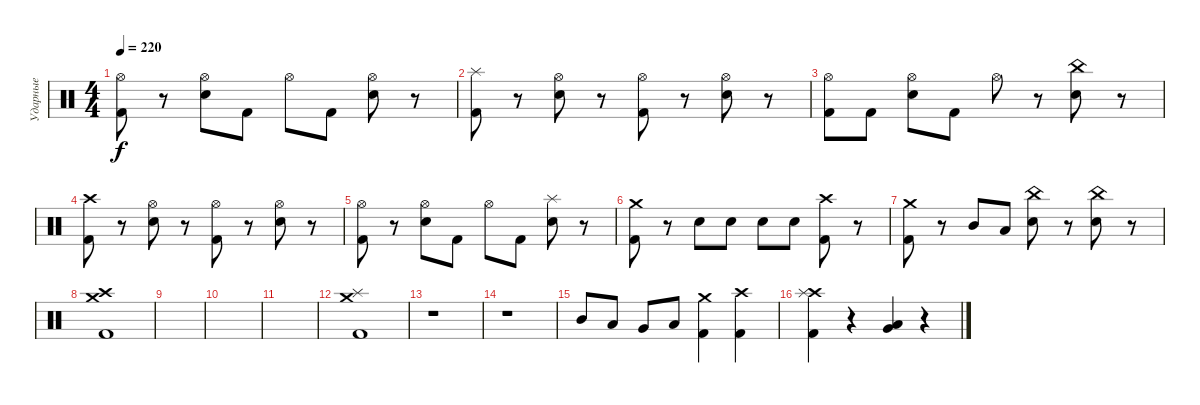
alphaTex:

\track ("Ударные" "Ударные") {instrument percussion}
\staff {score}
\articulation defaults
\ts (4 4)
\tempo 220
\clef neutral
\ks c
("Kick (hit) 2" "Hi-Hat (open)").8{dy f} r.8 ("Electric Snare (hit)" "Hi-Hat (open)").8 "Kick (hit) 2".8 "Hi-Hat (open)".8 "Kick (hit) 2".8 ("Electric Snare (hit)" "Hi-Hat (open)").8 r.8 |
("Kick (hit) 2" "Splash (hit)").8 r.8 ("Electric Snare (hit)" "Hi-Hat (open)").8 r.8 ("Kick (hit) 2" "Hi-Hat (open)").8 r.8 ("Electric Snare (hit)" "Hi-Hat (open)").8 r.8 |
("Kick (hit) 2" "Hi-Hat (open)").8 "Kick (hit) 2".8 ("Electric Snare (hit)" "Hi-Hat (open)").8 "Kick (hit) 2".8 "Hi-Hat (open)".8 r.8 ("Electric Snare (hit)" "China (hit)").8 r.8 |
("Kick (hit) 2" "Crash high (hit)").8 r.8 ("Electric Snare (hit)" "Hi-Hat (open)").8 r.8 ("Kick (hit) 2" "Hi-Hat (open)").8 r.8 ("Electric Snare (hit)" "Hi-Hat (open)").8 r.8 |
("Kick (hit) 2" "Hi-Hat (open)").8 r.8 ("Electric Snare (hit)" "Hi-Hat (open)").8 "Kick (hit) 2".8 "Hi-Hat (open)".8 "Kick (hit) 2".8 ("Electric Snare (hit)" "Splash (hit)").8 r.8 |
("Kick (hit) 2" "Crash medium (hit)").8 r.8 "Electric Snare (hit)".8 "Electric Snare (hit)".8 "Electric Snare (hit)".8 "Electric Snare (hit)".8 ("Kick (hit) 2" "Crash high (hit)").8 r.8 |
("Kick (hit) 2" "Crash medium (hit)").8 r.8 "Mid Tom (hit)".8 "Low Tom (hit)".8 ("Electric Snare (hit)" "China (hit)").8 r.8 ("Electric Snare (hit)" "China (hit)").8 r.8 |
("Kick (hit) 2" "Crash high (hit)" "Crash medium (hit)").1 |
|
|
|
("Kick (hit) 2" "Splash (hit)" "Crash medium (hit)").1 |
r.1 |
r.1 |
"Mid Tom (hit)".8 "Low Tom (hit)".8 "Very Low Tom (hit)".8 "Low Floor Tom (hit)".8 ("Kick (hit) 2" "Crash medium (hit)").4 ("Kick (hit) 2" "Crash high (hit)").4 |
("Kick (hit) 2" "Crash high (hit)" "Splash (hit)").4 r.4 ("Low Floor Tom (hit)" "Very Low Tom (hit)").4 r.4
